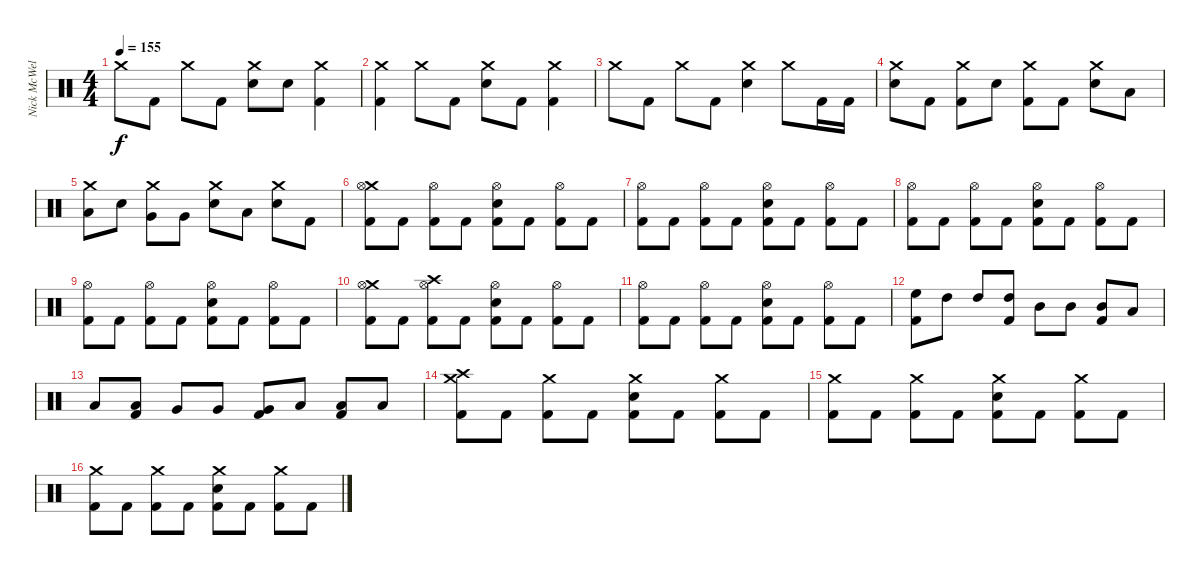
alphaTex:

\track ("Nick McWells" "Nick McWel") {instrument percussion}
\staff {score}
\articulation defaults
\ts (4 4)
\tempo 155
\clef neutral
\ks c "Crash medium (hit)".8{dy f} "Kick (hit) 2".8 "Crash medium (hit)".8 "Kick (hit) 2".8
("Crash medium (hit)" "Electric Snare (hit)").8 "Electric Snare (hit)".8 ("Crash medium (hit)" "Kick (hit) 2").4 |
("Crash medium (hit)" "Kick (hit) 2").4 "Crash medium (hit)".8 "Kick (hit) 2".8 ("Crash medium (hit)" "Electric Snare (hit)").8 "Kick (hit) 2".8 ("Crash medium (hit)" "Kick (hit) 2").4 |
"Crash medium (hit)".8 "Kick (hit) 2".8 "Crash medium (hit)".8 "Kick (hit) 2".8 ("Crash medium (hit)" "Electric Snare (hit)").4 "Crash medium (hit)".8 "Kick (hit) 2".16 "Kick (hit) 2".16 |
("Crash medium (hit)" "Electric Snare (hit)").8 "Kick (hit) 2".8 ("Crash medium (hit)" "Kick (hit) 2").8 "Electric Snare (hit)".8 ("Crash medium (hit)" "Kick (hit) 2").8 "Kick (hit) 2".8 ("Crash medium (hit)" "Electric Snare (hit)").8 "Low Tom (hit)".8 |
("Crash medium (hit)" "Low Tom (hit)").8 "Electric Snare (hit)".8 ("Crash medium (hit)" "Very Low Tom (hit)").8 "Very Low Tom (hit)".8 ("Crash medium (hit)" "Electric Snare (hit)").8 "Low Floor Tom (hit)".8 ("Crash medium (hit)" "Electric Snare (hit)").8 "Kick (hit) 2".8 |
("Crash medium (hit)" "Hi-Hat (open)" "Kick (hit) 2").8 "Kick (hit) 2".8 ("Hi-Hat (open)" "Kick (hit) 2").8 "Kick (hit) 2".8 ("Hi-Hat (open)" "Electric Snare (hit)" "Kick (hit) 2").8 "Kick (hit) 2".8 ("Hi-Hat (open)" "Kick (hit) 2").8 "Kick (hit) 2".8 |
("Hi-Hat (open)" "Kick (hit) 2").8 "Kick (hit) 2".8 ("Hi-Hat (open)" "Kick (hit) 2").8 "Kick (hit) 2".8 ("Hi-Hat (open)" "Electric Snare (hit)" "Kick (hit) 2").8 "Kick (hit) 2".8 ("Hi-Hat (open)" "Kick (hit) 2").8 "Kick (hit) 2".8 |
("Hi-Hat (open)" "Kick (hit) 2").8 "Kick (hit) 2".8 ("Hi-Hat (open)" "Kick (hit) 2").8 "Kick (hit) 2".8 ("Hi-Hat (open)" "Electric Snare (hit)" "Kick (hit) 2").8 "Kick (hit) 2".8 ("Hi-Hat (open)" "Kick (hit) 2").8 "Kick (hit) 2".8 |
("Hi-Hat (open)" "Kick (hit) 2").8 "Kick (hit) 2".8 ("Hi-Hat (open)" "Kick (hit) 2").8 "Kick (hit) 2".8 ("Hi-Hat (open)" "Electric Snare (hit)" "Kick (hit) 2").8 "Kick (hit) 2".8 ("Hi-Hat (open)" "Kick (hit) 2").8 "Kick (hit) 2".8 |
("Crash medium (hit)" "Hi-Hat (open)" "Kick (hit) 2").8 "Kick (hit) 2".8 ("Crash high (hit)" "Hi-Hat (open)" "Kick (hit) 2").8 "Kick (hit) 2".8 ("Hi-Hat (open)" "Electric Snare (hit)" "Kick (hit) 2").8 "Kick (hit) 2".8 ("Hi-Hat (open)" "Kick (hit) 2").8 "Kick (hit) 2".8 |
("Hi-Hat (open)" "Kick (hit) 2").8 "Kick (hit) 2".8 ("Hi-Hat (open)" "Kick (hit) 2").8 "Kick (hit) 2".8 ("Hi-Hat (open)" "Electric Snare (hit)" "Kick (hit) 2").8 "Kick (hit) 2".8 ("Hi-Hat (open)" "Kick (hit) 2").8 "Kick (hit) 2".8 |
("High Floor Tom (hit)" "Kick (hit) 2").8 "High Tom (hit)".8 "High Tom (hit)".8 ("High Tom (hit)" "Kick (hit) 2").8 "Mid Tom (hit)".8 "Mid Tom (hit)".8 ("Mid Tom (hit)" "Kick (hit) 2").8 "Low Tom (hit)".8 |
"Low Tom (hit)".8 ("Low Tom (hit)" "Kick (hit) 2").8 "Very Low Tom (hit)".8 "Very Low Tom (hit)".8 ("Very Low Tom (hit)" "Kick (hit) 2").8 "Low Floor Tom (hit)".8 ("Low Floor Tom (hit)" "Kick (hit) 2").8 "Low Floor Tom (hit)".8 |
("Crash high (hit)" "Crash medium (hit)" "Kick (hit) 2").8 "Kick (hit) 2".8 ("Crash medium (hit)" "Kick (hit) 2").8 "Kick (hit) 2".8 ("Crash medium (hit)" "Electric Snare (hit)" "Kick (hit) 2").8 "Kick (hit) 2".8 ("Crash medium (hit)" "Kick (hit) 2").8 "Kick (hit) 2".8 |
("Crash medium (hit)" "Kick (hit) 2").8 "Kick (hit) 2".8 ("Crash medium (hit)" "Kick (hit) 2").8 "Kick (hit) 2".8 ("Crash medium (hit)" "Electric Snare (hit)" "Kick (hit) 2").8 "Kick (hit) 2".8 ("Crash medium (hit)" "Kick (hit) 2").8 "Kick (hit) 2".8 |
("Crash medium (hit)" "Kick (hit) 2").8 "Kick (hit) 2".8 ("Crash medium (hit)" "Kick (hit) 2").8 "Kick (hit) 2".8 ("Crash medium (hit)" "Electric Snare (hit)" "Kick (hit) 2").8 "Kick (hit) 2".8 ("Crash medium (hit)" "Kick (hit) 2").8 "Kick (hit) 2".8
